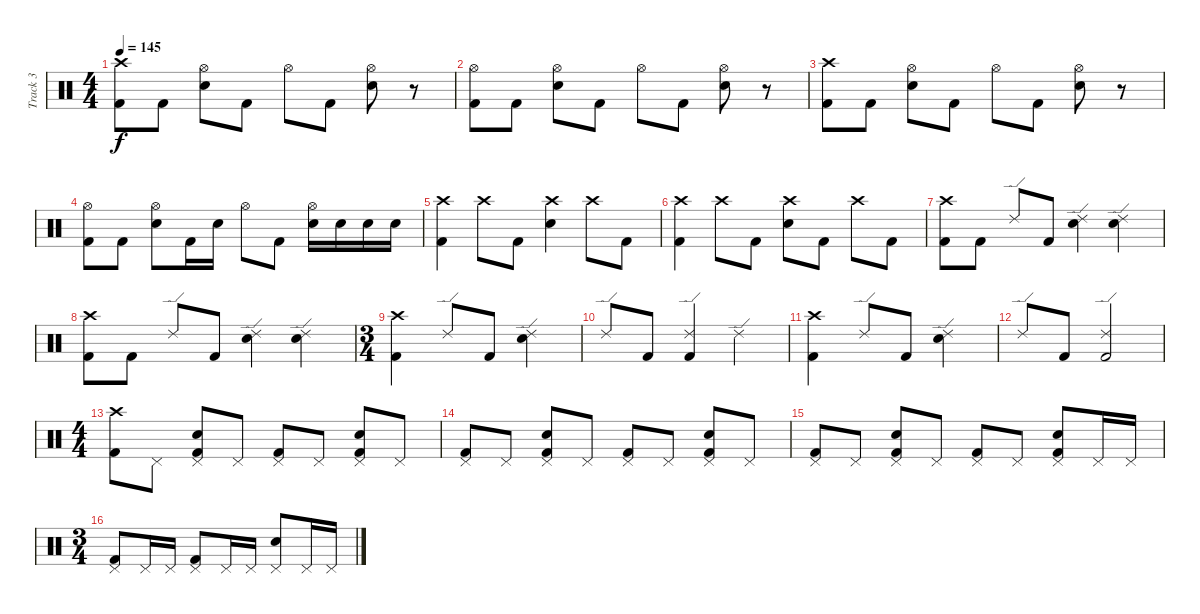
\track ("Track 3" "Track 3") {instrument percussion}
\staff {score}
\articulation defaults
\ts (4 4)
\tempo 145
\clef neutral
\ks c
("Crash high (hit)" "Kick (hit) 2").8{dy f} "Kick (hit) 2".8 ("Electric Snare (hit)" "Hi-Hat (open)").8 "Kick (hit) 2".8 "Hi-Hat (open)".8 "Kick (hit) 2".8 ("Hi-Hat (open)" "Electric Snare (hit)").8 r.8 |
("Hi-Hat (open)" "Kick (hit) 2").8 "Kick (hit) 2".8 ("Hi-Hat (open)" "Electric Snare (hit)").8 "Kick (hit) 2".8 "Hi-Hat (open)".8 "Kick (hit) 2".8 ("Hi-Hat (open)" "Electric Snare (hit)").8 r.8 |
("Crash high (hit)" "Kick (hit) 2").8 "Kick (hit) 2".8 ("Electric Snare (hit)" "Hi-Hat (open)").8 "Kick (hit) 2".8 "Hi-Hat (open)".8 "Kick (hit) 2".8 ("Hi-Hat (open)" "Electric Snare (hit)").8 r.8 |
("Hi-Hat (open)" "Kick (hit) 2").8 "Kick (hit) 2".8 ("Hi-Hat (open)" "Electric Snare (hit)").8 "Kick (hit) 2".16 "Electric Snare (hit)".16 "Hi-Hat (open)".8 "Kick (hit) 2".8 ("Hi-Hat (open)" "Electric Snare (hit)").16 "Electric Snare (hit)".16 "Electric Snare (hit)".16 "Electric Snare (hit)".16 |
("Crash high (hit)" "Kick (hit) 2").4 "Crash high (hit)".8 "Kick (hit) 2".8 ("Crash high (hit)" "Electric Snare (hit)").4 "Crash high (hit)".8 "Kick (hit) 2".8 |
("Crash high (hit)" "Kick (hit) 2").4 "Crash high (hit)".8 "Kick (hit) 2".8 ("Crash high (hit)" "Electric Snare (hit)").8 "Kick (hit) 2".8 "Crash high (hit)".8 "Kick (hit) 2".8 |
("Crash high (hit)" "Kick (hit) 2").8 "Kick (hit) 2".8 "Ride (edge) 2".8 "Kick (hit) 2".8 ("Ride (edge) 2" "Electric Snare (hit)").4 ("Ride (edge) 2" "Electric Snare (hit)").4 |
("Crash high (hit)" "Kick (hit) 2").8 "Kick (hit) 2".8 "Ride (edge) 2".8 "Kick (hit) 2".8 ("Ride (edge) 2" "Electric Snare (hit)").4 ("Ride (edge) 2" "Electric Snare (hit)").4 |
\ts (3 4)
("Crash high (hit)" "Kick (hit) 2").4 "Ride (edge) 2".8 "Kick (hit) 2".8 ("Ride (edge) 2" "Electric Snare (hit)").4 |
"Ride (edge) 2".8 "Kick (hit) 2".8 ("Ride (edge) 2" "Kick (hit) 2").4 "Ride (edge) 2".4 |
("Crash high (hit)" "Kick (hit) 2").4 "Ride (edge) 2".8 "Kick (hit) 2".8 ("Ride (edge) 2" "Electric Snare (hit)").4 |
"Ride (edge) 2".8 "Kick (hit) 2".8 ("Ride (edge) 2" "Kick (hit) 2").2 |
\ts (4 4)
("Crash high (hit)" "Kick (hit) 2").8 "Pedal Hi-Hat (hit)".8 ("Pedal Hi-Hat (hit)" "Kick (hit) 2" "Electric Snare (hit)").8 "Pedal Hi-Hat (hit)".8 ("Pedal Hi-Hat (hit)" "Kick (hit) 2").8 "Pedal Hi-Hat (hit)".8 ("Pedal Hi-Hat (hit)" "Kick (hit) 2" "Electric Snare (hit)").8 "Pedal Hi-Hat (hit)".8 |
("Pedal Hi-Hat (hit)" "Kick (hit) 2").8 "Pedal Hi-Hat (hit)".8 ("Pedal Hi-Hat (hit)" "Kick (hit) 2" "Electric Snare (hit)").8 "Pedal Hi-Hat (hit)".8 ("Pedal Hi-Hat (hit)" "Kick (hit) 2").8 "Pedal Hi-Hat (hit)".8 ("Pedal Hi-Hat (hit)" "Kick (hit) 2" "Electric Snare (hit)").8 "Pedal Hi-Hat (hit)".8 |
("Pedal Hi-Hat (hit)" "Kick (hit) 2").8 "Pedal Hi-Hat (hit)".8 ("Pedal Hi-Hat (hit)" "Kick (hit) 2" "Electric Snare (hit)").8 "Pedal Hi-Hat (hit)".8 ("Pedal Hi-Hat (hit)" "Kick (hit) 2").8 "Pedal Hi-Hat (hit)".8 ("Pedal Hi-Hat (hit)" "Kick (hit) 2" "Electric Snare (hit)").8 "Pedal Hi-Hat (hit)".16 "Pedal Hi-Hat (hit)".16 |
\ts (3 4)
("Pedal Hi-Hat (hit)" "Kick (hit) 2").8 "Pedal Hi-Hat (hit)".16 "Pedal Hi-Hat (hit)".16 ("Pedal Hi-Hat (hit)" "Kick (hit) 2").8 "Pedal Hi-Hat (hit)".16 "Pedal Hi-Hat (hit)".16 ("Pedal Hi-Hat (hit)" "Electric Snare (hit)").8 "Pedal Hi-Hat (hit)".16 "Pedal Hi-Hat (hit)".16
